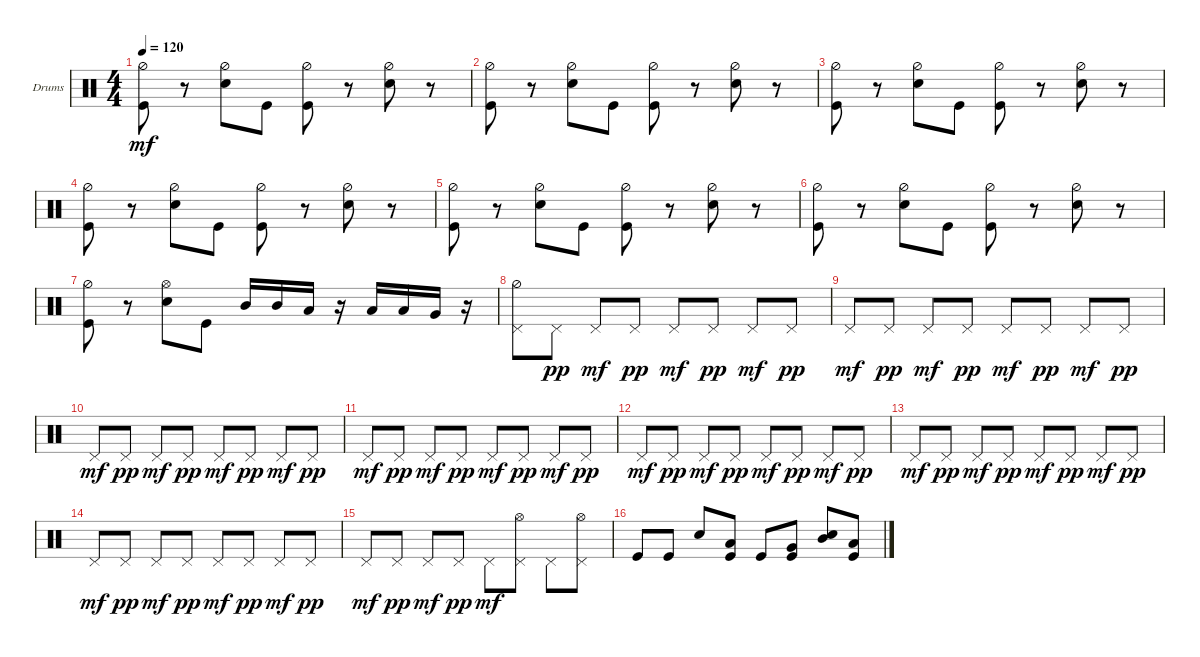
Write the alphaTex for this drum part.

\defaultSystemsLayout 4
\bracketExtendMode groupsimilarinstruments
\firstSystemTrackNameOrientation horizontal
\otherSystemsTrackNameOrientation horizontal
\track ("Drumkit" "Drums") {instrument percussion}
\staff {score}
\articulation defaults
\ts (4 4)
\tempo 120
\clef neutral
\ks c
("Kick (hit)" "Hi-Hat (half)").8{dy mf} r.8 ("Snare (hit) 2" "Hi-Hat (half)").8 "Kick (hit)".8 ("Kick (hit)" "Hi-Hat (half)").8 r.8 ("Snare (hit) 2" "Hi-Hat (half)").8 r.8 |
("Kick (hit)" "Hi-Hat (half)").8 r.8 ("Snare (hit) 2" "Hi-Hat (half)").8 "Kick (hit)".8 ("Kick (hit)" "Hi-Hat (half)").8 r.8 ("Snare (hit) 2" "Hi-Hat (half)").8 r.8 |
("Kick (hit)" "Hi-Hat (half)").8 r.8 ("Snare (hit) 2" "Hi-Hat (half)").8 "Kick (hit)".8 ("Kick (hit)" "Hi-Hat (half)").8 r.8 ("Snare (hit) 2" "Hi-Hat (half)").8 r.8 |
("Kick (hit)" "Hi-Hat (half)").8 r.8 ("Snare (hit) 2" "Hi-Hat (half)").8 "Kick (hit)".8 ("Kick (hit)" "Hi-Hat (half)").8 r.8 ("Snare (hit) 2" "Hi-Hat (half)").8 r.8 |
("Kick (hit)" "Hi-Hat (half)").8 r.8 ("Snare (hit) 2" "Hi-Hat (half)").8 "Kick (hit)".8 ("Kick (hit)" "Hi-Hat (half)").8 r.8 ("Snare (hit) 2" "Hi-Hat (half)").8 r.8 |
("Kick (hit)" "Hi-Hat (half)").8 r.8 ("Snare (hit) 2" "Hi-Hat (half)").8 "Kick (hit)".8 ("Kick (hit)" "Hi-Hat (half)").8 r.8 ("Snare (hit) 2" "Hi-Hat (half)").8 r.8 |
("Kick (hit)" "Hi-Hat (half)").8 r.8 ("Snare (hit) 2" "Hi-Hat (open)").8 "Kick (hit)".8 "Mid Tom (hit)".16 "Mid Tom (hit)".16 "Low Tom (hit)".16 r.16 "Low Tom (hit)".16 "Low Tom (hit)".16 "Very Low Tom (hit)".16 r.16 |
("Pedal Hi-Hat (hit)" "Hi-Hat (half)").8 "Pedal Hi-Hat (hit)".8{dy pp} "Pedal Hi-Hat (hit)".8{dy mf} "Pedal Hi-Hat (hit)".8{dy pp} "Pedal Hi-Hat (hit)".8{dy mf} "Pedal Hi-Hat (hit)".8{dy pp} "Pedal Hi-Hat (hit)".8{dy mf} "Pedal Hi-Hat (hit)".8{dy pp} |
"Pedal Hi-Hat (hit)".8{dy mf} "Pedal Hi-Hat (hit)".8{dy pp} "Pedal Hi-Hat (hit)".8{dy mf} "Pedal Hi-Hat (hit)".8{dy pp} "Pedal Hi-Hat (hit)".8{dy mf} "Pedal Hi-Hat (hit)".8{dy pp} "Pedal Hi-Hat (hit)".8{dy mf} "Pedal Hi-Hat (hit)".8{dy pp} |
"Pedal Hi-Hat (hit)".8{dy mf} "Pedal Hi-Hat (hit)".8{dy pp} "Pedal Hi-Hat (hit)".8{dy mf} "Pedal Hi-Hat (hit)".8{dy pp} "Pedal Hi-Hat (hit)".8{dy mf} "Pedal Hi-Hat (hit)".8{dy pp} "Pedal Hi-Hat (hit)".8{dy mf} "Pedal Hi-Hat (hit)".8{dy pp} |
"Pedal Hi-Hat (hit)".8{dy mf} "Pedal Hi-Hat (hit)".8{dy pp} "Pedal Hi-Hat (hit)".8{dy mf} "Pedal Hi-Hat (hit)".8{dy pp} "Pedal Hi-Hat (hit)".8{dy mf} "Pedal Hi-Hat (hit)".8{dy pp} "Pedal Hi-Hat (hit)".8{dy mf} "Pedal Hi-Hat (hit)".8{dy pp} |
"Pedal Hi-Hat (hit)".8{dy mf} "Pedal Hi-Hat (hit)".8{dy pp} "Pedal Hi-Hat (hit)".8{dy mf} "Pedal Hi-Hat (hit)".8{dy pp} "Pedal Hi-Hat (hit)".8{dy mf} "Pedal Hi-Hat (hit)".8{dy pp} "Pedal Hi-Hat (hit)".8{dy mf} "Pedal Hi-Hat (hit)".8{dy pp} |
"Pedal Hi-Hat (hit)".8{dy mf} "Pedal Hi-Hat (hit)".8{dy pp} "Pedal Hi-Hat (hit)".8{dy mf} "Pedal Hi-Hat (hit)".8{dy pp} "Pedal Hi-Hat (hit)".8{dy mf} "Pedal Hi-Hat (hit)".8{dy pp} "Pedal Hi-Hat (hit)".8{dy mf} "Pedal Hi-Hat (hit)".8{dy pp} |
"Pedal Hi-Hat (hit)".8{dy mf} "Pedal Hi-Hat (hit)".8{dy pp} "Pedal Hi-Hat (hit)".8{dy mf} "Pedal Hi-Hat (hit)".8{dy pp} "Pedal Hi-Hat (hit)".8{dy mf} "Pedal Hi-Hat (hit)".8{dy pp} "Pedal Hi-Hat (hit)".8{dy mf} "Pedal Hi-Hat (hit)".8{dy pp} |
"Pedal Hi-Hat (hit)".8{dy mf} "Pedal Hi-Hat (hit)".8{dy pp} "Pedal Hi-Hat (hit)".8{dy mf} "Pedal Hi-Hat (hit)".8{dy pp} "Pedal Hi-Hat (hit)".8{dy mf} ("Pedal Hi-Hat (hit)" "Hi-Hat (open)").8 "Pedal Hi-Hat (hit)".8 ("Pedal Hi-Hat (hit)" "Hi-Hat (open)").8 |
"Kick (hit)".8 "Kick (hit)".8 "Snare (hit) 2".8 ("Kick (hit)" "Low Tom (hit)").8 "Kick (hit)".8 ("Kick (hit)" "Very Low Tom (hit)").8 ("Snare (hit) 2" "Mid Tom (hit)").8 ("Low Tom (hit)" "Kick (hit)").8
